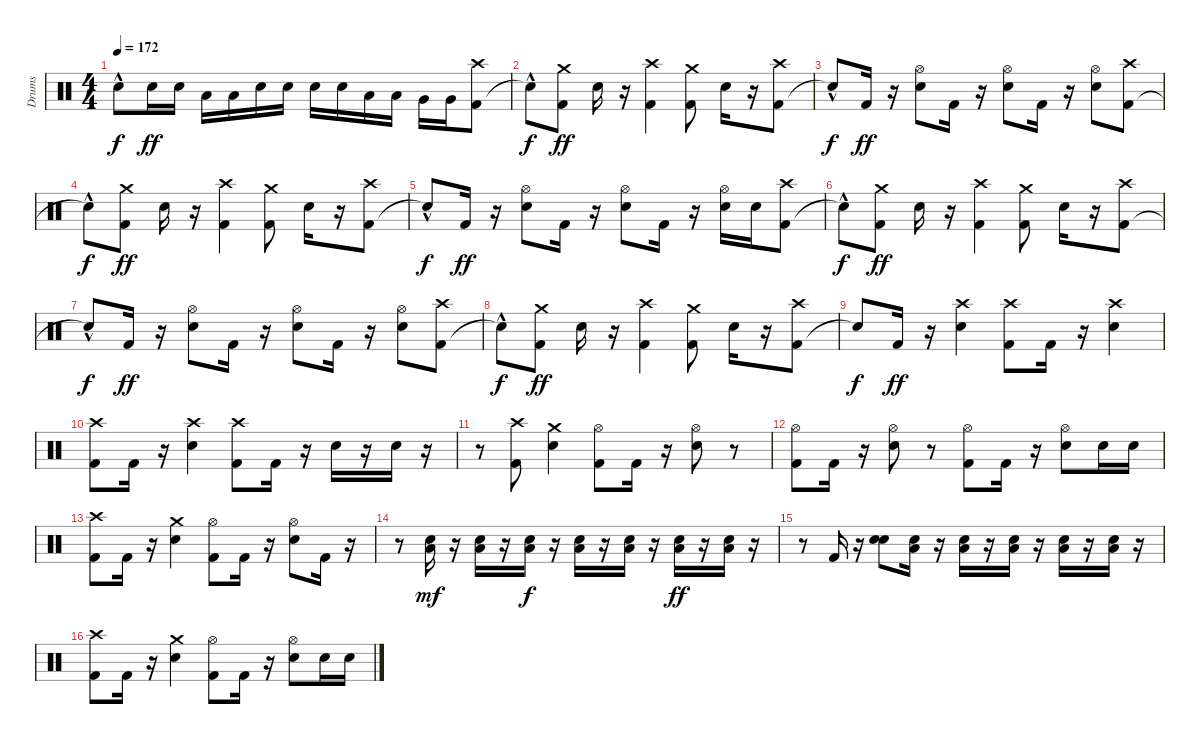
\track ("Drums" "Drums") {instrument percussion}
\staff {score}
\articulation defaults
\ts (4 4)
\tempo 172
\clef neutral
\ks c "Snare (hit)"{hac t}.8{dy f} "Electric Snare (hit)".16{dy ff} "Electric Snare (hit)".16 "Low Tom (hit)".16 "Low Tom (hit)".16 "Electric Snare (hit)".16 "Electric Snare (hit)".16 "Electric Snare (hit)".16 "Electric Snare (hit)".16 "Low Tom (hit)".16 "Low Tom (hit)".16 "Very Low Tom (hit)".16 "Very Low Tom (hit)".16
("Kick (hit) 2" "Crash high (hit)").8 |
"Snare (hit)"{hac t}.8{dy f} ("Kick (hit) 2" "Crash medium (hit)").8{dy ff} "Electric Snare (hit)".16 r.16 ("Kick (hit) 2" "Crash high (hit)").4 ("Kick (hit) 2" "Crash medium (hit)").8 "Electric Snare (hit)".16 r.16 ("Kick (hit) 2" "Crash high (hit)").8 |
"Snare (hit)"{hac t}.8{dy f} "Kick (hit) 2".16{dy ff} r.16 ("Electric Snare (hit)" "Hi-Hat (open)").8 "Kick (hit) 2".16 r.16 ("Electric Snare (hit)" "Hi-Hat (open)").8 "Kick (hit) 2".16 r.16 ("Electric Snare (hit)" "Hi-Hat (open)").8 ("Kick (hit) 2" "Crash high (hit)").8 |
"Snare (hit)"{hac t}.8{dy f} ("Kick (hit) 2" "Crash medium (hit)").8{dy ff} "Electric Snare (hit)".16 r.16 ("Kick (hit) 2" "Crash high (hit)").4 ("Kick (hit) 2" "Crash medium (hit)").8 "Electric Snare (hit)".16 r.16 ("Kick (hit) 2" "Crash high (hit)").8 |
"Snare (hit)"{hac t}.8{dy f} "Kick (hit) 2".16{dy ff} r.16 ("Electric Snare (hit)" "Hi-Hat (open)").8 "Kick (hit) 2".16 r.16 ("Electric Snare (hit)" "Hi-Hat (open)").8 "Kick (hit) 2".16 r.16 ("Electric Snare (hit)" "Hi-Hat (open)").16 "Electric Snare (hit)".16 ("Kick (hit) 2" "Crash high (hit)").8 |
"Snare (hit)"{hac t}.8{dy f} ("Kick (hit) 2" "Crash medium (hit)").8{dy ff} "Electric Snare (hit)".16 r.16 ("Kick (hit) 2" "Crash high (hit)").4 ("Kick (hit) 2" "Crash medium (hit)").8 "Electric Snare (hit)".16 r.16 ("Kick (hit) 2" "Crash high (hit)").8 |
"Snare (hit)"{hac t}.8{dy f} "Kick (hit) 2".16{dy ff} r.16 ("Electric Snare (hit)" "Hi-Hat (open)").8 "Kick (hit) 2".16 r.16 ("Electric Snare (hit)" "Hi-Hat (open)").8 "Kick (hit) 2".16 r.16 ("Electric Snare (hit)" "Hi-Hat (open)").8 ("Kick (hit) 2" "Crash high (hit)").8 |
"Snare (hit)"{hac t}.8{dy f} ("Kick (hit) 2" "Crash medium (hit)").8{dy ff} "Electric Snare (hit)".16 r.16 ("Kick (hit) 2" "Crash high (hit)").4 ("Kick (hit) 2" "Crash medium (hit)").8 "Electric Snare (hit)".16 r.16 ("Kick (hit) 2" "Crash high (hit)").8 |
"Snare (hit)"{t}.8{dy f} "Kick (hit) 2".16{dy ff} r.16 ("Electric Snare (hit)" "Crash high (hit)").4 ("Kick (hit) 2" "Crash high (hit)").8 "Kick (hit) 2".16 r.16 ("Electric Snare (hit)" "Crash high (hit)").4 |
("Kick (hit) 2" "Crash high (hit)").8 "Kick (hit) 2".16 r.16 ("Electric Snare (hit)" "Crash high (hit)").4 ("Kick (hit) 2" "Crash high (hit)").8 "Kick (hit) 2".16 r.16 "Electric Snare (hit)".16 r.16 "Electric Snare (hit)".16 r.16 |
r.8 ("Kick (hit) 2" "Crash high (hit)").8 ("Electric Snare (hit)" "Crash medium (hit)").4 ("Kick (hit) 2" "Hi-Hat (open)").8 "Kick (hit) 2".16 r.16 ("Electric Snare (hit)" "Hi-Hat (open)").8 r.8 |
("Kick (hit) 2" "Hi-Hat (open)").8 "Kick (hit) 2".16 r.16 ("Electric Snare (hit)" "Hi-Hat (open)").8 r.8 ("Kick (hit) 2" "Hi-Hat (open)").8 "Kick (hit) 2".16 r.16 ("Electric Snare (hit)" "Hi-Hat (open)").8 "Electric Snare (hit)".16 "Electric Snare (hit)".16 |
("Kick (hit) 2" "Crash high (hit)").8 "Kick (hit) 2".16 r.16 ("Electric Snare (hit)" "Crash medium (hit)").4 ("Kick (hit) 2" "Hi-Hat (open)").8 "Kick (hit) 2".16 r.16 ("Electric Snare (hit)" "Hi-Hat (open)").8 "Kick (hit) 2".16 r.16 |
r.8 ("Electric Snare (hit)" "Low Tom (hit)").16{dy mf} r.16 ("Electric Snare (hit)" "Low Tom (hit)").16 r.16 ("Electric Snare (hit)" "Low Tom (hit)").16{dy f} r.16 ("Electric Snare (hit)" "Low Tom (hit)").16 r.16 ("Electric Snare (hit)" "Low Tom (hit)").16 r.16 ("Electric Snare (hit)" "Low Tom (hit)").16{dy ff} r.16 ("Electric Snare (hit)" "Low Tom (hit)").16 r.16 |
r.8 "Kick (hit) 2".16 r.16 ("Electric Snare (hit)" "Electric Snare (hit)").8 ("Electric Snare (hit)" "Low Tom (hit)").16 r.16 ("Electric Snare (hit)" "Low Tom (hit)").16 r.16 ("Electric Snare (hit)" "Low Tom (hit)").16 r.16 ("Electric Snare (hit)" "Low Tom (hit)").16 r.16 ("Electric Snare (hit)" "Low Tom (hit)").16 r.16 |
("Kick (hit) 2" "Crash high (hit)").8 "Kick (hit) 2".16 r.16 ("Electric Snare (hit)" "Crash medium (hit)").4 ("Kick (hit) 2" "Hi-Hat (open)").8 "Kick (hit) 2".16 r.16 ("Electric Snare (hit)" "Hi-Hat (open)").8 "Electric Snare (hit)".16 "Electric Snare (hit)".16
